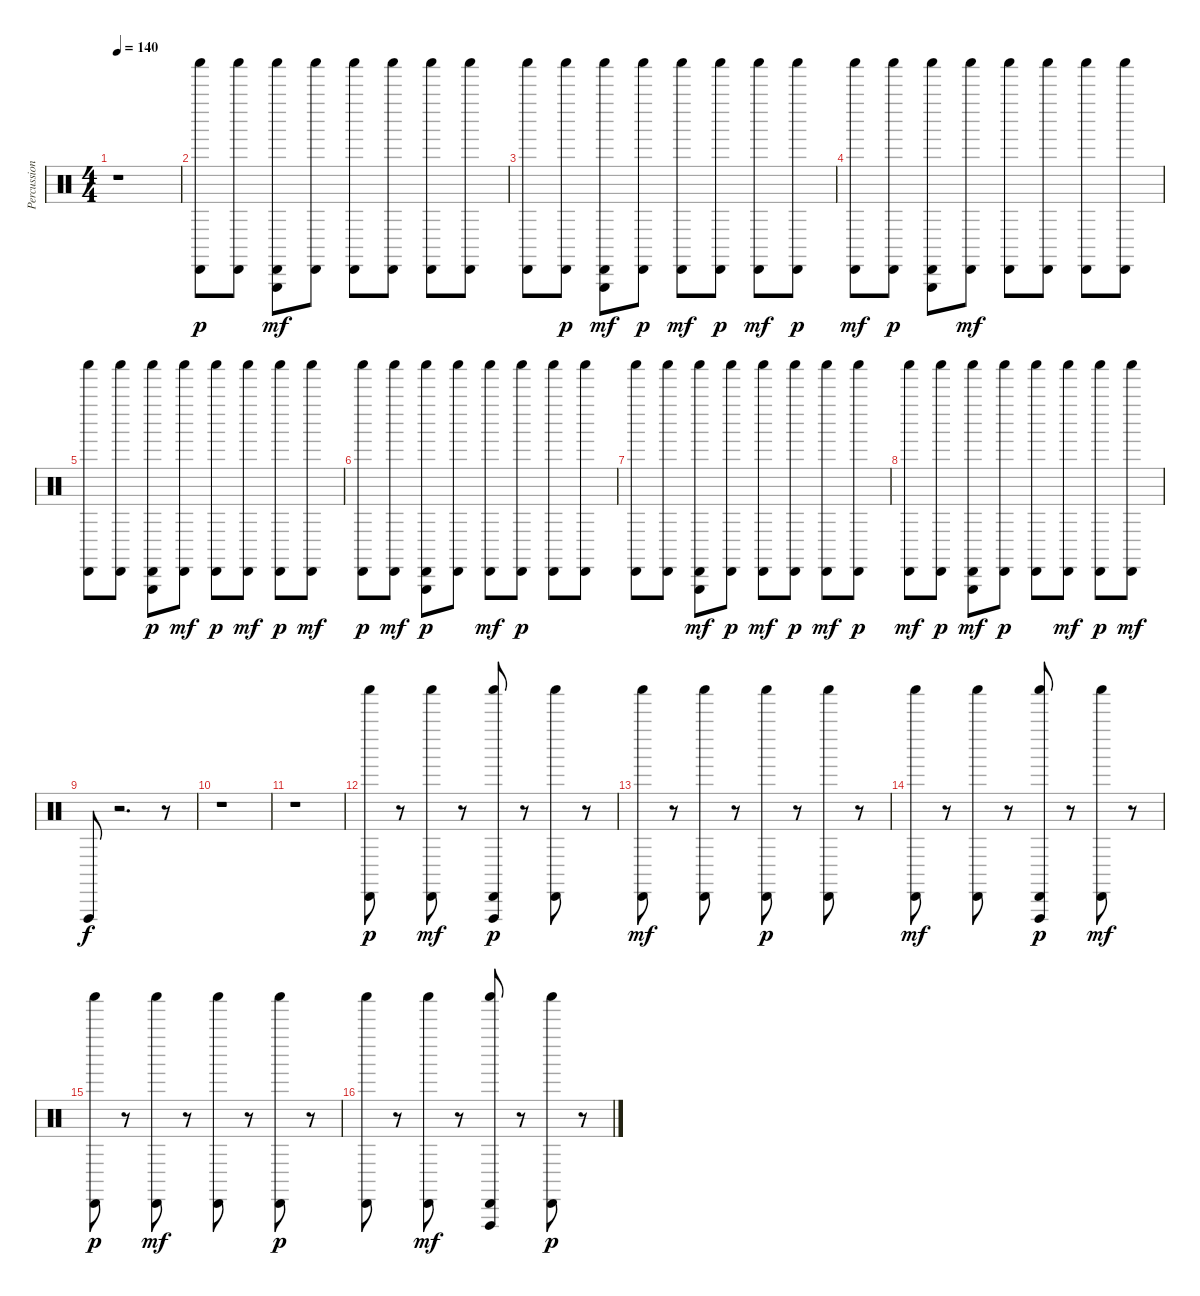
\track ("Percussion Std Drums" "Percussion") {instrument percussion}
\staff {score}
\articulation defaults
\ts (4 4)
\tempo 140
\clef neutral
\ks c
r.1{dy mf} |
("Cabasa (hit)" "Shaker (hit)").8{dy p} ("Cabasa (hit)" "Shaker (hit)").8 ("Shaker (hit)" "Triangle (hit)" "Cabasa (hit)").8{dy mf} ("Shaker (hit)" "Cabasa (hit)").8 ("Shaker (hit)" "Cabasa (hit)").8 ("Shaker (hit)" "Cabasa (hit)").8 ("Shaker (hit)" "Cabasa (hit)").8 ("Shaker (hit)" "Cabasa (hit)").8 |
("Shaker (hit)" "Cabasa (hit)").8 ("Cabasa (hit)" "Shaker (hit)").8{dy p} ("Triangle (hit)" "Shaker (hit)" "Cabasa (hit)").8{dy mf} ("Cabasa (hit)" "Shaker (hit)").8{dy p} ("Shaker (hit)" "Cabasa (hit)").8{dy mf} ("Cabasa (hit)" "Shaker (hit)").8{dy p} ("Shaker (hit)" "Cabasa (hit)").8{dy mf} ("Cabasa (hit)" "Shaker (hit)").8{dy p} |
("Shaker (hit)" "Cabasa (hit)").8{dy mf} ("Cabasa (hit)" "Shaker (hit)").8{dy p} ("Triangle (hit)" "Cabasa (hit)" "Shaker (hit)").8 ("Shaker (hit)" "Cabasa (hit)").8{dy mf} ("Shaker (hit)" "Cabasa (hit)").8 ("Shaker (hit)" "Cabasa (hit)").8 ("Shaker (hit)" "Cabasa (hit)").8 ("Shaker (hit)" "Cabasa (hit)").8 |
("Shaker (hit)" "Cabasa (hit)").8 ("Shaker (hit)" "Cabasa (hit)").8 ("Cabasa (hit)" "Triangle (hit)" "Shaker (hit)").8{dy p} ("Shaker (hit)" "Cabasa (hit)").8{dy mf} ("Cabasa (hit)" "Shaker (hit)").8{dy p} ("Shaker (hit)" "Cabasa (hit)").8{dy mf} ("Cabasa (hit)" "Shaker (hit)").8{dy p} ("Shaker (hit)" "Cabasa (hit)").8{dy mf} |
("Cabasa (hit)" "Shaker (hit)").8{dy p} ("Shaker (hit)" "Cabasa (hit)").8{dy mf} ("Cabasa (hit)" "Triangle (hit)" "Shaker (hit)").8{dy p} ("Cabasa (hit)" "Shaker (hit)").8 ("Shaker (hit)" "Cabasa (hit)").8{dy mf} ("Cabasa (hit)" "Shaker (hit)").8{dy p} ("Cabasa (hit)" "Shaker (hit)").8 ("Cabasa (hit)" "Shaker (hit)").8 |
("Cabasa (hit)" "Shaker (hit)").8 ("Cabasa (hit)" "Shaker (hit)").8 ("Triangle (hit)" "Shaker (hit)" "Cabasa (hit)").8{dy mf} ("Cabasa (hit)" "Shaker (hit)").8{dy p} ("Shaker (hit)" "Cabasa (hit)").8{dy mf} ("Cabasa (hit)" "Shaker (hit)").8{dy p} ("Shaker (hit)" "Cabasa (hit)").8{dy mf} ("Cabasa (hit)" "Shaker (hit)").8{dy p} |
("Shaker (hit)" "Cabasa (hit)").8{dy mf} ("Cabasa (hit)" "Shaker (hit)").8{dy p} ("Shaker (hit)" "Triangle (hit)" "Cabasa (hit)").8{dy mf} ("Cabasa (hit)" "Shaker (hit)").8{dy p} ("Cabasa (hit)" "Shaker (hit)").8 ("Shaker (hit)" "Cabasa (hit)").8{dy mf} ("Cabasa (hit)" "Shaker (hit)").8{dy p} ("Shaker (hit)" "Cabasa (hit)").8{dy mf} |
"Vibraslap (hit)".8{dy f} r.2{d} r.8 |
r.1 |
r.1 |
("Cabasa (hit)" "Shaker (hit)").8{dy p} r.8 ("Shaker (hit)" "Cabasa (hit)").8{dy mf} r.8 ("Vibraslap (hit)" "Cabasa (hit)" "Shaker (hit)").8{dy p} r.8 ("Cabasa (hit)" "Shaker (hit)").8 r.8 |
("Shaker (hit)" "Cabasa (hit)").8{dy mf} r.8 ("Shaker (hit)" "Cabasa (hit)").8 r.8 ("Cabasa (hit)" "Shaker (hit)").8{dy p} r.8 ("Cabasa (hit)" "Shaker (hit)").8 r.8 |
("Shaker (hit)" "Cabasa (hit)").8{dy mf} r.8 ("Shaker (hit)" "Cabasa (hit)").8 r.8 ("Cabasa (hit)" "Vibraslap (hit)" "Shaker (hit)").8{dy p} r.8 ("Shaker (hit)" "Cabasa (hit)").8{dy mf} r.8 |
("Cabasa (hit)" "Shaker (hit)").8{dy p} r.8 ("Shaker (hit)" "Cabasa (hit)").8{dy mf} r.8 ("Shaker (hit)" "Cabasa (hit)").8 r.8 ("Cabasa (hit)" "Shaker (hit)").8{dy p} r.8 |
("Cabasa (hit)" "Shaker (hit)").8 r.8 ("Shaker (hit)" "Cabasa (hit)").8{dy mf} r.8 ("Shaker (hit)" "Vibraslap (hit)" "Cabasa (hit)").8 r.8 ("Cabasa (hit)" "Shaker (hit)").8{dy p} r.8
